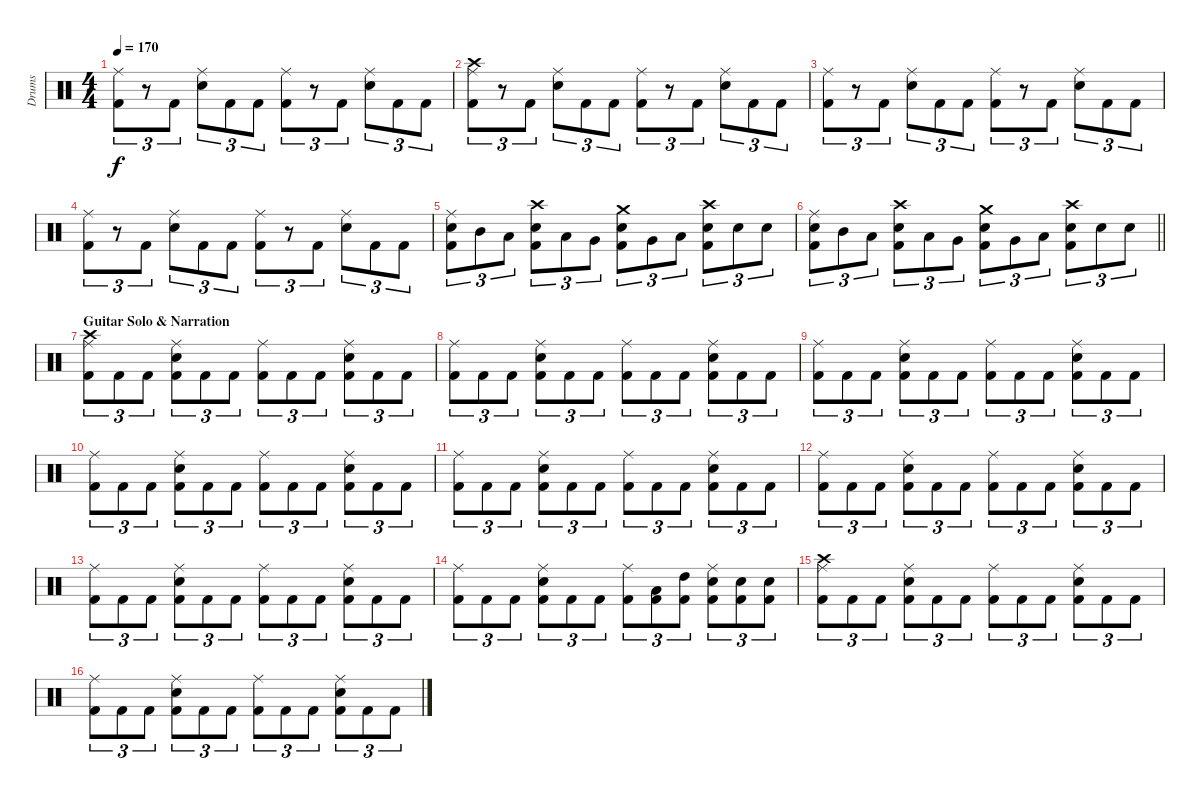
\track ("Drums" "Drums") {instrument percussion}
\staff {score}
\articulation defaults
\ts (4 4)
\tempo 170
\clef neutral
\ks c
("Ride (middle)" "Kick (hit) 2").8{tu (3 2) dy f} r.8{tu (3 2)} "Kick (hit) 2".8{tu (3 2)} ("Ride (middle)" "Snare (hit) 2").8{tu (3 2)} "Kick (hit) 2".8{tu (3 2)} "Kick (hit) 2".8{tu (3 2)} ("Ride (middle)" "Kick (hit) 2").8{tu (3 2)} r.8{tu (3 2)} "Kick (hit) 2".8{tu (3 2)} ("Ride (middle)" "Snare (hit) 2").8{tu (3 2)} "Kick (hit) 2".8{tu (3 2)} "Kick (hit) 2".8{tu (3 2)} |
("Crash high (hit)" "Ride (middle)" "Kick (hit) 2").8{tu (3 2)} r.8{tu (3 2)} "Kick (hit) 2".8{tu (3 2)} ("Ride (middle)" "Snare (hit) 2").8{tu (3 2)} "Kick (hit) 2".8{tu (3 2)} "Kick (hit) 2".8{tu (3 2)} ("Ride (middle)" "Kick (hit) 2").8{tu (3 2)} r.8{tu (3 2)} "Kick (hit) 2".8{tu (3 2)} ("Ride (middle)" "Snare (hit) 2").8{tu (3 2)} "Kick (hit) 2".8{tu (3 2)} "Kick (hit) 2".8{tu (3 2)} |
("Ride (middle)" "Kick (hit) 2").8{tu (3 2)} r.8{tu (3 2)} "Kick (hit) 2".8{tu (3 2)} ("Ride (middle)" "Snare (hit) 2").8{tu (3 2)} "Kick (hit) 2".8{tu (3 2)} "Kick (hit) 2".8{tu (3 2)} ("Ride (middle)" "Kick (hit) 2").8{tu (3 2)} r.8{tu (3 2)} "Kick (hit) 2".8{tu (3 2)} ("Ride (middle)" "Snare (hit) 2").8{tu (3 2)} "Kick (hit) 2".8{tu (3 2)} "Kick (hit) 2".8{tu (3 2)} |
("Ride (middle)" "Kick (hit) 2").8{tu (3 2)} r.8{tu (3 2)} "Kick (hit) 2".8{tu (3 2)} ("Ride (middle)" "Snare (hit) 2").8{tu (3 2)} "Kick (hit) 2".8{tu (3 2)} "Kick (hit) 2".8{tu (3 2)} ("Ride (middle)" "Kick (hit) 2").8{tu (3 2)} r.8{tu (3 2)} "Kick (hit) 2".8{tu (3 2)} ("Ride (middle)" "Snare (hit) 2").8{tu (3 2)} "Kick (hit) 2".8{tu (3 2)} "Kick (hit) 2".8{tu (3 2)} |
("Ride (middle)" "Snare (hit) 2" "Kick (hit) 2").8{tu (3 2)} "Mid Tom (hit)".8{tu (3 2)} "Low Tom (hit)".8{tu (3 2)} ("Crash high (hit)" "Snare (hit) 2" "Kick (hit) 2").8{tu (3 2)} "Low Tom (hit)".8{tu (3 2)} "Very Low Tom (hit)".8{tu (3 2)} ("Crash medium (hit)" "Snare (hit) 2" "Kick (hit) 2").8{tu (3 2)} "Very Low Tom (hit)".8{tu (3 2)} "Low Floor Tom (hit)".8{tu (3 2)} ("Crash high (hit)" "Snare (hit) 2" "Kick (hit) 2").8{tu (3 2)} "Snare (hit) 2".8{tu (3 2)} "Snare (hit) 2".8{tu (3 2)} |
\barLineRight lightlight
("Ride (middle)" "Snare (hit) 2" "Kick (hit) 2").8{tu (3 2)} "Mid Tom (hit)".8{tu (3 2)} "Low Tom (hit)".8{tu (3 2)} ("Crash high (hit)" "Snare (hit) 2" "Kick (hit) 2").8{tu (3 2)} "Low Tom (hit)".8{tu (3 2)} "Very Low Tom (hit)".8{tu (3 2)} ("Crash medium (hit)" "Snare (hit) 2" "Kick (hit) 2").8{tu (3 2)} "Very Low Tom (hit)".8{tu (3 2)} "Low Floor Tom (hit)".8{tu (3 2)} ("Crash high (hit)" "Snare (hit) 2" "Kick (hit) 2").8{tu (3 2)} "Snare (hit) 2".8{tu (3 2)} "Snare (hit) 2".8{tu (3 2)} |
\section ("" "Guitar Solo & Narration")
("Crash high (hit)" "Ride (middle)" "Kick (hit) 2").8{tu (3 2)} "Kick (hit) 2".8{tu (3 2)} "Kick (hit) 2".8{tu (3 2)} ("Ride (middle)" "Snare (hit) 2" "Kick (hit) 2").8{tu (3 2)} "Kick (hit) 2".8{tu (3 2)} "Kick (hit) 2".8{tu (3 2)} ("Ride (middle)" "Kick (hit) 2").8{tu (3 2)} "Kick (hit) 2".8{tu (3 2)} "Kick (hit) 2".8{tu (3 2)} ("Ride (middle)" "Snare (hit) 2" "Kick (hit) 2").8{tu (3 2)} "Kick (hit) 2".8{tu (3 2)} "Kick (hit) 2".8{tu (3 2)} |
("Ride (middle)" "Kick (hit) 2").8{tu (3 2)} "Kick (hit) 2".8{tu (3 2)} "Kick (hit) 2".8{tu (3 2)} ("Ride (middle)" "Snare (hit) 2" "Kick (hit) 2").8{tu (3 2)} "Kick (hit) 2".8{tu (3 2)} "Kick (hit) 2".8{tu (3 2)} ("Ride (middle)" "Kick (hit) 2").8{tu (3 2)} "Kick (hit) 2".8{tu (3 2)} "Kick (hit) 2".8{tu (3 2)} ("Ride (middle)" "Snare (hit) 2" "Kick (hit) 2").8{tu (3 2)} "Kick (hit) 2".8{tu (3 2)} "Kick (hit) 2".8{tu (3 2)} |
("Ride (middle)" "Kick (hit) 2").8{tu (3 2)} "Kick (hit) 2".8{tu (3 2)} "Kick (hit) 2".8{tu (3 2)} ("Ride (middle)" "Snare (hit) 2" "Kick (hit) 2").8{tu (3 2)} "Kick (hit) 2".8{tu (3 2)} "Kick (hit) 2".8{tu (3 2)} ("Ride (middle)" "Kick (hit) 2").8{tu (3 2)} "Kick (hit) 2".8{tu (3 2)} "Kick (hit) 2".8{tu (3 2)} ("Ride (middle)" "Snare (hit) 2" "Kick (hit) 2").8{tu (3 2)} "Kick (hit) 2".8{tu (3 2)} "Kick (hit) 2".8{tu (3 2)} |
("Ride (middle)" "Kick (hit) 2").8{tu (3 2)} "Kick (hit) 2".8{tu (3 2)} "Kick (hit) 2".8{tu (3 2)} ("Ride (middle)" "Snare (hit) 2" "Kick (hit) 2").8{tu (3 2)} "Kick (hit) 2".8{tu (3 2)} "Kick (hit) 2".8{tu (3 2)} ("Ride (middle)" "Kick (hit) 2").8{tu (3 2)} "Kick (hit) 2".8{tu (3 2)} "Kick (hit) 2".8{tu (3 2)} ("Ride (middle)" "Snare (hit) 2" "Kick (hit) 2").8{tu (3 2)} "Kick (hit) 2".8{tu (3 2)} "Kick (hit) 2".8{tu (3 2)} |
("Ride (middle)" "Kick (hit) 2").8{tu (3 2)} "Kick (hit) 2".8{tu (3 2)} "Kick (hit) 2".8{tu (3 2)} ("Ride (middle)" "Snare (hit) 2" "Kick (hit) 2").8{tu (3 2)} "Kick (hit) 2".8{tu (3 2)} "Kick (hit) 2".8{tu (3 2)} ("Ride (middle)" "Kick (hit) 2").8{tu (3 2)} "Kick (hit) 2".8{tu (3 2)} "Kick (hit) 2".8{tu (3 2)} ("Ride (middle)" "Snare (hit) 2" "Kick (hit) 2").8{tu (3 2)} "Kick (hit) 2".8{tu (3 2)} "Kick (hit) 2".8{tu (3 2)} |
("Ride (middle)" "Kick (hit) 2").8{tu (3 2)} "Kick (hit) 2".8{tu (3 2)} "Kick (hit) 2".8{tu (3 2)} ("Ride (middle)" "Snare (hit) 2" "Kick (hit) 2").8{tu (3 2)} "Kick (hit) 2".8{tu (3 2)} "Kick (hit) 2".8{tu (3 2)} ("Ride (middle)" "Kick (hit) 2").8{tu (3 2)} "Kick (hit) 2".8{tu (3 2)} "Kick (hit) 2".8{tu (3 2)} ("Ride (middle)" "Snare (hit) 2" "Kick (hit) 2").8{tu (3 2)} "Kick (hit) 2".8{tu (3 2)} "Kick (hit) 2".8{tu (3 2)} |
("Ride (middle)" "Kick (hit) 2").8{tu (3 2)} "Kick (hit) 2".8{tu (3 2)} "Kick (hit) 2".8{tu (3 2)} ("Ride (middle)" "Snare (hit) 2" "Kick (hit) 2").8{tu (3 2)} "Kick (hit) 2".8{tu (3 2)} "Kick (hit) 2".8{tu (3 2)} ("Ride (middle)" "Kick (hit) 2").8{tu (3 2)} "Kick (hit) 2".8{tu (3 2)} "Kick (hit) 2".8{tu (3 2)} ("Ride (middle)" "Snare (hit) 2" "Kick (hit) 2").8{tu (3 2)} "Kick (hit) 2".8{tu (3 2)} "Kick (hit) 2".8{tu (3 2)} |
("Ride (middle)" "Kick (hit) 2").8{tu (3 2)} "Kick (hit) 2".8{tu (3 2)} "Kick (hit) 2".8{tu (3 2)} ("Ride (middle)" "Snare (hit) 2" "Kick (hit) 2").8{tu (3 2)} "Kick (hit) 2".8{tu (3 2)} "Kick (hit) 2".8{tu (3 2)} ("Ride (middle)" "Kick (hit) 2").8{tu (3 2)} ("Low Tom (hit)" "Kick (hit) 2").8{tu (3 2)} ("High Tom (hit)" "Kick (hit) 2").8{tu (3 2)} ("Ride (middle)" "Snare (hit) 2" "Kick (hit) 2").8{tu (3 2)} ("Snare (hit) 2" "Kick (hit) 2").8{tu (3 2)} ("Snare (hit) 2" "Kick (hit) 2").8{tu (3 2)} |
("Crash high (hit)" "Ride (middle)" "Kick (hit) 2").8{tu (3 2)} "Kick (hit) 2".8{tu (3 2)} "Kick (hit) 2".8{tu (3 2)} ("Ride (middle)" "Snare (hit) 2" "Kick (hit) 2").8{tu (3 2)} "Kick (hit) 2".8{tu (3 2)} "Kick (hit) 2".8{tu (3 2)} ("Ride (middle)" "Kick (hit) 2").8{tu (3 2)} "Kick (hit) 2".8{tu (3 2)} "Kick (hit) 2".8{tu (3 2)} ("Ride (middle)" "Snare (hit) 2" "Kick (hit) 2").8{tu (3 2)} "Kick (hit) 2".8{tu (3 2)} "Kick (hit) 2".8{tu (3 2)} |
("Ride (middle)" "Kick (hit) 2").8{tu (3 2)} "Kick (hit) 2".8{tu (3 2)} "Kick (hit) 2".8{tu (3 2)} ("Ride (middle)" "Snare (hit) 2" "Kick (hit) 2").8{tu (3 2)} "Kick (hit) 2".8{tu (3 2)} "Kick (hit) 2".8{tu (3 2)} ("Ride (middle)" "Kick (hit) 2").8{tu (3 2)} "Kick (hit) 2".8{tu (3 2)} "Kick (hit) 2".8{tu (3 2)} ("Ride (middle)" "Snare (hit) 2" "Kick (hit) 2").8{tu (3 2)} "Kick (hit) 2".8{tu (3 2)} "Kick (hit) 2".8{tu (3 2)}
